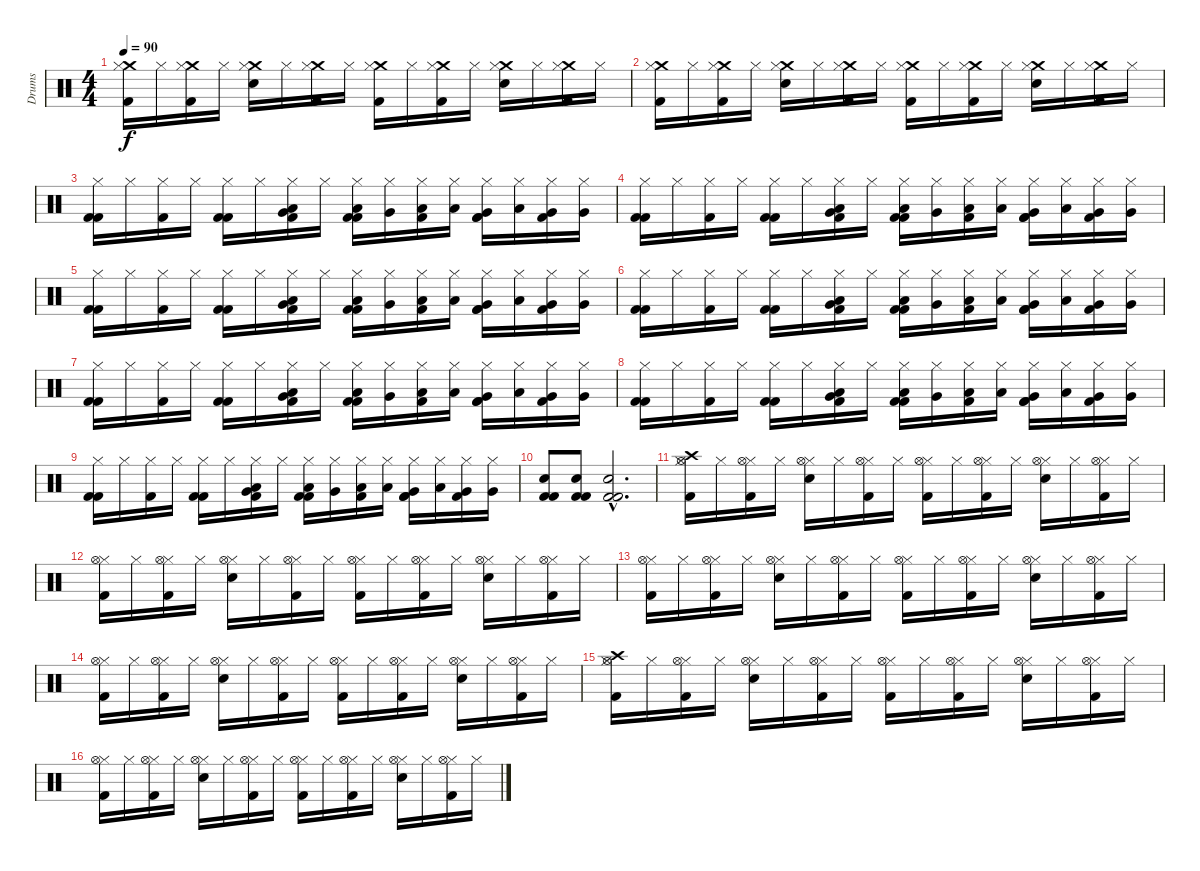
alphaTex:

\track ("Drums" "Drums") {instrument percussion}
\staff {score}
\articulation defaults
\ts (4 4)
\tempo 90
\clef neutral
\ks c
("Crash medium (hit)" "Kick (hit) 2" "Hi-Hat (closed)").16{dy f} "Hi-Hat (closed)".16 ("Crash medium (hit)" "Kick (hit) 2" "Hi-Hat (closed)").16 "Hi-Hat (closed)".16 ("Crash medium (hit)" "Snare (hit) 2" "Hi-Hat (closed)").16 "Hi-Hat (closed)".16 ("Crash medium (hit)" "Kick (hit) 2" "Hi-Hat (closed)").16 "Hi-Hat (closed)".16 ("Crash medium (hit)" "Kick (hit) 2" "Hi-Hat (closed)").16 "Hi-Hat (closed)".16 ("Crash medium (hit)" "Kick (hit) 2" "Hi-Hat (closed)").16 "Hi-Hat (closed)".16 ("Crash medium (hit)" "Snare (hit) 2" "Hi-Hat (closed)").16 "Hi-Hat (closed)".16 ("Crash medium (hit)" "Kick (hit) 2" "Hi-Hat (closed)").16 "Hi-Hat (closed)".16 |
("Crash medium (hit)" "Kick (hit) 2" "Hi-Hat (closed)").16 "Hi-Hat (closed)".16 ("Crash medium (hit)" "Kick (hit) 2" "Hi-Hat (closed)").16 "Hi-Hat (closed)".16 ("Crash medium (hit)" "Snare (hit) 2" "Hi-Hat (closed)").16 "Hi-Hat (closed)".16 ("Crash medium (hit)" "Kick (hit) 2" "Hi-Hat (closed)").16 "Hi-Hat (closed)".16 ("Crash medium (hit)" "Kick (hit) 2" "Hi-Hat (closed)").16 "Hi-Hat (closed)".16 ("Crash medium (hit)" "Kick (hit) 2" "Hi-Hat (closed)").16 "Hi-Hat (closed)".16 ("Crash medium (hit)" "Snare (hit) 2" "Hi-Hat (closed)").16 "Hi-Hat (closed)".16 ("Crash medium (hit)" "Kick (hit) 2" "Hi-Hat (closed)").16 "Hi-Hat (closed)".16 |
("Kick (hit) 2" "Kick (hit) 2" "Hi-Hat (closed)").16 "Hi-Hat (closed)".16 ("Kick (hit) 2" "Hi-Hat (closed)").16 "Hi-Hat (closed)".16 ("Kick (hit) 2" "Kick (hit) 2" "Hi-Hat (closed)").16 "Hi-Hat (closed)".16 ("Low Floor Tom (hit)" "Very Low Tom (hit)" "Kick (hit) 2" "Hi-Hat (closed)").16 "Hi-Hat (closed)".16 ("Low Floor Tom (hit)" "Kick (hit) 2" "Kick (hit) 2" "Hi-Hat (closed)").16 ("Very Low Tom (hit)" "Hi-Hat (closed)").16 ("Low Tom (hit)" "Kick (hit) 2" "Hi-Hat (closed)").16 ("Low Floor Tom (hit)" "Hi-Hat (closed)").16 ("Very Low Tom (hit)" "Kick (hit) 2" "Kick (hit) 2" "Hi-Hat (closed)").16 ("Low Floor Tom (hit)" "Hi-Hat (closed)").16 ("Very Low Tom (hit)" "Kick (hit) 2" "Hi-Hat (closed)").16 ("Very Low Tom (hit)" "Hi-Hat (closed)").16 |
("Kick (hit) 2" "Kick (hit) 2" "Hi-Hat (closed)").16 "Hi-Hat (closed)".16 ("Kick (hit) 2" "Hi-Hat (closed)").16 "Hi-Hat (closed)".16 ("Kick (hit) 2" "Kick (hit) 2" "Hi-Hat (closed)").16 "Hi-Hat (closed)".16 ("Low Floor Tom (hit)" "Very Low Tom (hit)" "Kick (hit) 2" "Hi-Hat (closed)").16 "Hi-Hat (closed)".16 ("Low Floor Tom (hit)" "Kick (hit) 2" "Kick (hit) 2" "Hi-Hat (closed)").16 ("Very Low Tom (hit)" "Hi-Hat (closed)").16 ("Low Tom (hit)" "Kick (hit) 2" "Hi-Hat (closed)").16 ("Low Floor Tom (hit)" "Hi-Hat (closed)").16 ("Very Low Tom (hit)" "Kick (hit) 2" "Kick (hit) 2" "Hi-Hat (closed)").16 ("Low Floor Tom (hit)" "Hi-Hat (closed)").16 ("Very Low Tom (hit)" "Kick (hit) 2" "Hi-Hat (closed)").16 ("Very Low Tom (hit)" "Hi-Hat (closed)").16 |
("Kick (hit) 2" "Kick (hit) 2" "Hi-Hat (closed)").16 "Hi-Hat (closed)".16 ("Kick (hit) 2" "Hi-Hat (closed)").16 "Hi-Hat (closed)".16 ("Kick (hit) 2" "Kick (hit) 2" "Hi-Hat (closed)").16 "Hi-Hat (closed)".16 ("Low Floor Tom (hit)" "Very Low Tom (hit)" "Kick (hit) 2" "Hi-Hat (closed)").16 "Hi-Hat (closed)".16 ("Low Floor Tom (hit)" "Kick (hit) 2" "Kick (hit) 2" "Hi-Hat (closed)").16 ("Very Low Tom (hit)" "Hi-Hat (closed)").16 ("Low Tom (hit)" "Kick (hit) 2" "Hi-Hat (closed)").16 ("Low Floor Tom (hit)" "Hi-Hat (closed)").16 ("Very Low Tom (hit)" "Kick (hit) 2" "Kick (hit) 2" "Hi-Hat (closed)").16 ("Low Floor Tom (hit)" "Hi-Hat (closed)").16 ("Very Low Tom (hit)" "Kick (hit) 2" "Hi-Hat (closed)").16 ("Very Low Tom (hit)" "Hi-Hat (closed)").16 |
("Kick (hit) 2" "Kick (hit) 2" "Hi-Hat (closed)").16 "Hi-Hat (closed)".16 ("Kick (hit) 2" "Hi-Hat (closed)").16 "Hi-Hat (closed)".16 ("Kick (hit) 2" "Kick (hit) 2" "Hi-Hat (closed)").16 "Hi-Hat (closed)".16 ("Low Floor Tom (hit)" "Very Low Tom (hit)" "Kick (hit) 2" "Hi-Hat (closed)").16 "Hi-Hat (closed)".16 ("Low Floor Tom (hit)" "Kick (hit) 2" "Kick (hit) 2" "Hi-Hat (closed)").16 ("Very Low Tom (hit)" "Hi-Hat (closed)").16 ("Low Tom (hit)" "Kick (hit) 2" "Hi-Hat (closed)").16 ("Low Floor Tom (hit)" "Hi-Hat (closed)").16 ("Very Low Tom (hit)" "Kick (hit) 2" "Kick (hit) 2" "Hi-Hat (closed)").16 ("Low Floor Tom (hit)" "Hi-Hat (closed)").16 ("Very Low Tom (hit)" "Kick (hit) 2" "Hi-Hat (closed)").16 ("Very Low Tom (hit)" "Hi-Hat (closed)").16 |
("Kick (hit) 2" "Kick (hit) 2" "Hi-Hat (closed)").16 "Hi-Hat (closed)".16 ("Kick (hit) 2" "Hi-Hat (closed)").16 "Hi-Hat (closed)".16 ("Kick (hit) 2" "Kick (hit) 2" "Hi-Hat (closed)").16 "Hi-Hat (closed)".16 ("Low Floor Tom (hit)" "Very Low Tom (hit)" "Kick (hit) 2" "Hi-Hat (closed)").16 "Hi-Hat (closed)".16 ("Low Floor Tom (hit)" "Kick (hit) 2" "Kick (hit) 2" "Hi-Hat (closed)").16 ("Very Low Tom (hit)" "Hi-Hat (closed)").16 ("Low Tom (hit)" "Kick (hit) 2" "Hi-Hat (closed)").16 ("Low Floor Tom (hit)" "Hi-Hat (closed)").16 ("Very Low Tom (hit)" "Kick (hit) 2" "Kick (hit) 2" "Hi-Hat (closed)").16 ("Low Floor Tom (hit)" "Hi-Hat (closed)").16 ("Very Low Tom (hit)" "Kick (hit) 2" "Hi-Hat (closed)").16 ("Very Low Tom (hit)" "Hi-Hat (closed)").16 |
("Kick (hit) 2" "Kick (hit) 2" "Hi-Hat (closed)").16 "Hi-Hat (closed)".16 ("Kick (hit) 2" "Hi-Hat (closed)").16 "Hi-Hat (closed)".16 ("Kick (hit) 2" "Kick (hit) 2" "Hi-Hat (closed)").16 "Hi-Hat (closed)".16 ("Low Floor Tom (hit)" "Very Low Tom (hit)" "Kick (hit) 2" "Hi-Hat (closed)").16 "Hi-Hat (closed)".16 ("Low Floor Tom (hit)" "Kick (hit) 2" "Kick (hit) 2" "Hi-Hat (closed)").16 ("Very Low Tom (hit)" "Hi-Hat (closed)").16 ("Low Tom (hit)" "Kick (hit) 2" "Hi-Hat (closed)").16 ("Low Floor Tom (hit)" "Hi-Hat (closed)").16 ("Very Low Tom (hit)" "Kick (hit) 2" "Kick (hit) 2" "Hi-Hat (closed)").16 ("Low Floor Tom (hit)" "Hi-Hat (closed)").16 ("Very Low Tom (hit)" "Kick (hit) 2" "Hi-Hat (closed)").16 ("Very Low Tom (hit)" "Hi-Hat (closed)").16 |
("Kick (hit) 2" "Kick (hit) 2" "Hi-Hat (closed)").16 "Hi-Hat (closed)".16 ("Kick (hit) 2" "Hi-Hat (closed)").16 "Hi-Hat (closed)".16 ("Kick (hit) 2" "Kick (hit) 2" "Hi-Hat (closed)").16 "Hi-Hat (closed)".16 ("Low Floor Tom (hit)" "Very Low Tom (hit)" "Kick (hit) 2" "Hi-Hat (closed)").16 "Hi-Hat (closed)".16 ("Low Floor Tom (hit)" "Kick (hit) 2" "Kick (hit) 2" "Hi-Hat (closed)").16 ("Very Low Tom (hit)" "Hi-Hat (closed)").16 ("Low Tom (hit)" "Kick (hit) 2" "Hi-Hat (closed)").16 ("Low Floor Tom (hit)" "Hi-Hat (closed)").16 ("Very Low Tom (hit)" "Kick (hit) 2" "Kick (hit) 2" "Hi-Hat (closed)").16 ("Low Floor Tom (hit)" "Hi-Hat (closed)").16 ("Very Low Tom (hit)" "Kick (hit) 2" "Hi-Hat (closed)").16 ("Very Low Tom (hit)" "Hi-Hat (closed)").16 |
("Kick (hit) 2" "Kick (hit) 2" "Snare (hit) 2").8 ("Kick (hit) 2" "Kick (hit) 2" "Snare (hit) 2").8 ("Kick (hit) 2"{hac} "Kick (hit) 2"{hac} "Snare (hit) 2").2{d} |
("Kick (hit) 2" "Crash high (hit)" "Hi-Hat (closed)" "Hi-Hat (open)").16 "Hi-Hat (closed)".16 ("Kick (hit) 2" "Hi-Hat (closed)" "Hi-Hat (open)").16 "Hi-Hat (closed)".16 ("Snare (hit) 2" "Hi-Hat (closed)" "Hi-Hat (open)").16 "Hi-Hat (closed)".16 ("Kick (hit) 2" "Hi-Hat (closed)" "Hi-Hat (open)").16 "Hi-Hat (closed)".16 ("Kick (hit) 2" "Hi-Hat (closed)" "Hi-Hat (open)").16 "Hi-Hat (closed)".16 ("Kick (hit) 2" "Hi-Hat (closed)" "Hi-Hat (open)").16 "Hi-Hat (closed)".16 ("Snare (hit) 2" "Hi-Hat (closed)" "Hi-Hat (open)").16 "Hi-Hat (closed)".16 ("Kick (hit) 2" "Hi-Hat (closed)" "Hi-Hat (open)").16 "Hi-Hat (closed)".16 |
("Kick (hit) 2" "Hi-Hat (closed)" "Hi-Hat (open)").16 "Hi-Hat (closed)".16 ("Kick (hit) 2" "Hi-Hat (closed)" "Hi-Hat (open)").16 "Hi-Hat (closed)".16 ("Snare (hit) 2" "Hi-Hat (closed)" "Hi-Hat (open)").16 "Hi-Hat (closed)".16 ("Kick (hit) 2" "Hi-Hat (closed)" "Hi-Hat (open)").16 "Hi-Hat (closed)".16 ("Kick (hit) 2" "Hi-Hat (closed)" "Hi-Hat (open)").16 "Hi-Hat (closed)".16 ("Kick (hit) 2" "Hi-Hat (closed)" "Hi-Hat (open)").16 "Hi-Hat (closed)".16 ("Snare (hit) 2" "Hi-Hat (closed)" "Hi-Hat (open)").16 "Hi-Hat (closed)".16 ("Kick (hit) 2" "Hi-Hat (closed)" "Hi-Hat (open)").16 "Hi-Hat (closed)".16 |
("Kick (hit) 2" "Hi-Hat (closed)" "Hi-Hat (open)").16 "Hi-Hat (closed)".16 ("Kick (hit) 2" "Hi-Hat (closed)" "Hi-Hat (open)").16 "Hi-Hat (closed)".16 ("Snare (hit) 2" "Hi-Hat (closed)" "Hi-Hat (open)").16 "Hi-Hat (closed)".16 ("Kick (hit) 2" "Hi-Hat (closed)" "Hi-Hat (open)").16 "Hi-Hat (closed)".16 ("Kick (hit) 2" "Hi-Hat (closed)" "Hi-Hat (open)").16 "Hi-Hat (closed)".16 ("Kick (hit) 2" "Hi-Hat (closed)" "Hi-Hat (open)").16 "Hi-Hat (closed)".16 ("Snare (hit) 2" "Hi-Hat (closed)" "Hi-Hat (open)").16 "Hi-Hat (closed)".16 ("Kick (hit) 2" "Hi-Hat (closed)" "Hi-Hat (open)").16 "Hi-Hat (closed)".16 |
("Kick (hit) 2" "Hi-Hat (closed)" "Hi-Hat (open)").16 "Hi-Hat (closed)".16 ("Kick (hit) 2" "Hi-Hat (closed)" "Hi-Hat (open)").16 "Hi-Hat (closed)".16 ("Snare (hit) 2" "Hi-Hat (closed)" "Hi-Hat (open)").16 "Hi-Hat (closed)".16 ("Kick (hit) 2" "Hi-Hat (closed)" "Hi-Hat (open)").16 "Hi-Hat (closed)".16 ("Kick (hit) 2" "Hi-Hat (closed)" "Hi-Hat (open)").16 "Hi-Hat (closed)".16 ("Kick (hit) 2" "Hi-Hat (closed)" "Hi-Hat (open)").16 "Hi-Hat (closed)".16 ("Snare (hit) 2" "Hi-Hat (closed)" "Hi-Hat (open)").16 "Hi-Hat (closed)".16 ("Kick (hit) 2" "Hi-Hat (closed)" "Hi-Hat (open)").16 "Hi-Hat (closed)".16 |
("Kick (hit) 2" "Crash high (hit)" "Hi-Hat (closed)" "Hi-Hat (open)").16 "Hi-Hat (closed)".16 ("Kick (hit) 2" "Hi-Hat (closed)" "Hi-Hat (open)").16 "Hi-Hat (closed)".16 ("Snare (hit) 2" "Hi-Hat (closed)" "Hi-Hat (open)").16 "Hi-Hat (closed)".16 ("Kick (hit) 2" "Hi-Hat (closed)" "Hi-Hat (open)").16 "Hi-Hat (closed)".16 ("Kick (hit) 2" "Hi-Hat (closed)" "Hi-Hat (open)").16 "Hi-Hat (closed)".16 ("Kick (hit) 2" "Hi-Hat (closed)" "Hi-Hat (open)").16 "Hi-Hat (closed)".16 ("Snare (hit) 2" "Hi-Hat (closed)" "Hi-Hat (open)").16 "Hi-Hat (closed)".16 ("Kick (hit) 2" "Hi-Hat (closed)" "Hi-Hat (open)").16 "Hi-Hat (closed)".16 |
("Kick (hit) 2" "Hi-Hat (closed)" "Hi-Hat (open)").16 "Hi-Hat (closed)".16 ("Kick (hit) 2" "Hi-Hat (closed)" "Hi-Hat (open)").16 "Hi-Hat (closed)".16 ("Snare (hit) 2" "Hi-Hat (closed)" "Hi-Hat (open)").16 "Hi-Hat (closed)".16 ("Kick (hit) 2" "Hi-Hat (closed)" "Hi-Hat (open)").16 "Hi-Hat (closed)".16 ("Kick (hit) 2" "Hi-Hat (closed)" "Hi-Hat (open)").16 "Hi-Hat (closed)".16 ("Kick (hit) 2" "Hi-Hat (closed)" "Hi-Hat (open)").16 "Hi-Hat (closed)".16 ("Snare (hit) 2" "Hi-Hat (closed)" "Hi-Hat (open)").16 "Hi-Hat (closed)".16 ("Kick (hit) 2" "Hi-Hat (closed)" "Hi-Hat (open)").16 "Hi-Hat (closed)".16
